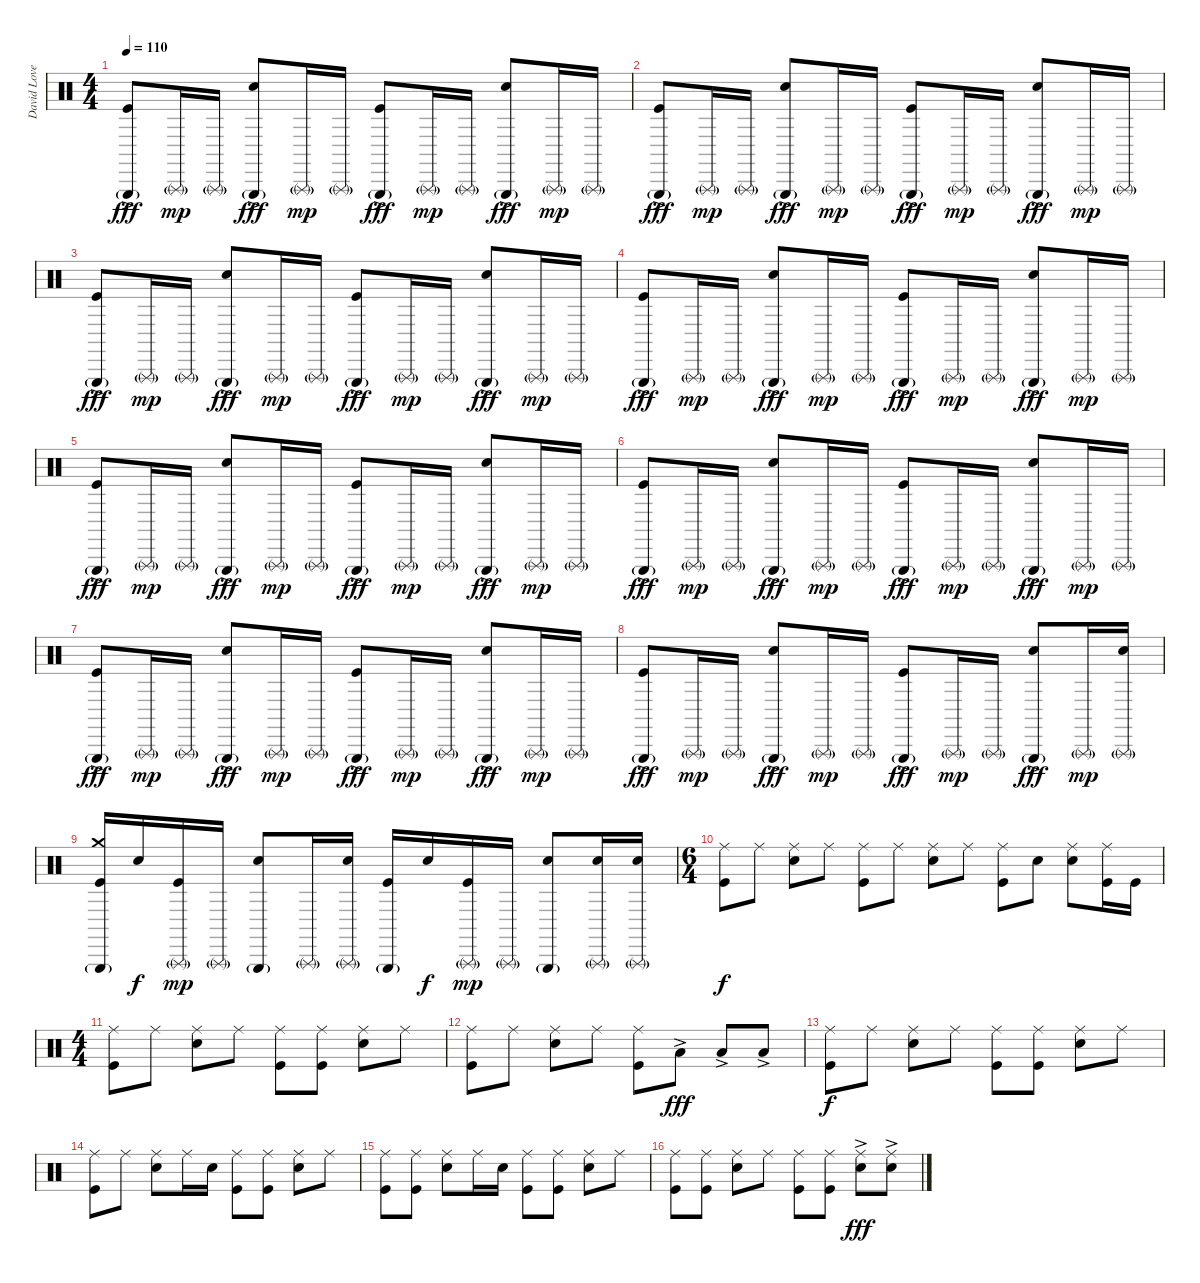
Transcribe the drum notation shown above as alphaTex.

\track ("David Lovering" "David Love") {instrument percussion}
\staff {score}
\articulation defaults
\ts (4 4)
\tempo 110
\clef neutral
\ks c
("Triangle (hit)"{g} "Kick (hit)"{ac}).8{dy fff} "Triangle (rnute)"{g}.16{dy mp} "Triangle (rnute)"{g}.16 ("Triangle (hit)"{g} "Snare (hit) 2"{ac}).8{dy fff} "Triangle (rnute)"{g}.16{dy mp} "Triangle (rnute)"{g}.16 ("Triangle (hit)"{g} "Kick (hit)"{ac}).8{dy fff} "Triangle (rnute)"{g}.16{dy mp} "Triangle (rnute)"{g}.16 ("Triangle (hit)"{g} "Snare (hit) 2"{ac}).8{dy fff} "Triangle (rnute)"{g}.16{dy mp} "Triangle (rnute)"{g}.16 |
("Triangle (hit)"{g} "Kick (hit)"{ac}).8{dy fff} "Triangle (rnute)"{g}.16{dy mp} "Triangle (rnute)"{g}.16 ("Triangle (hit)"{g} "Snare (hit) 2"{ac}).8{dy fff} "Triangle (rnute)"{g}.16{dy mp} "Triangle (rnute)"{g}.16 ("Triangle (hit)"{g} "Kick (hit)"{ac}).8{dy fff} "Triangle (rnute)"{g}.16{dy mp} "Triangle (rnute)"{g}.16 ("Triangle (hit)"{g} "Snare (hit) 2"{ac}).8{dy fff} "Triangle (rnute)"{g}.16{dy mp} "Triangle (rnute)"{g}.16 |
("Triangle (hit)"{g} "Kick (hit)"{ac}).8{dy fff} "Triangle (rnute)"{g}.16{dy mp} "Triangle (rnute)"{g}.16 ("Triangle (hit)"{g} "Snare (hit) 2"{ac}).8{dy fff} "Triangle (rnute)"{g}.16{dy mp} "Triangle (rnute)"{g}.16 ("Triangle (hit)"{g} "Kick (hit)"{ac}).8{dy fff} "Triangle (rnute)"{g}.16{dy mp} "Triangle (rnute)"{g}.16 ("Triangle (hit)"{g} "Snare (hit) 2"{ac}).8{dy fff} "Triangle (rnute)"{g}.16{dy mp} "Triangle (rnute)"{g}.16 |
("Triangle (hit)"{g} "Kick (hit)"{ac}).8{dy fff} "Triangle (rnute)"{g}.16{dy mp} "Triangle (rnute)"{g}.16 ("Triangle (hit)"{g} "Snare (hit) 2"{ac}).8{dy fff} "Triangle (rnute)"{g}.16{dy mp} "Triangle (rnute)"{g}.16 ("Triangle (hit)"{g} "Kick (hit)"{ac}).8{dy fff} "Triangle (rnute)"{g}.16{dy mp} "Triangle (rnute)"{g}.16 ("Triangle (hit)"{g} "Snare (hit) 2"{ac}).8{dy fff} "Triangle (rnute)"{g}.16{dy mp} "Triangle (rnute)"{g}.16 |
("Triangle (hit)"{g} "Kick (hit)"{ac}).8{dy fff} "Triangle (rnute)"{g}.16{dy mp} "Triangle (rnute)"{g}.16 ("Triangle (hit)"{g} "Snare (hit) 2"{ac}).8{dy fff} "Triangle (rnute)"{g}.16{dy mp} "Triangle (rnute)"{g}.16 ("Triangle (hit)"{g} "Kick (hit)"{ac}).8{dy fff} "Triangle (rnute)"{g}.16{dy mp} "Triangle (rnute)"{g}.16 ("Triangle (hit)"{g} "Snare (hit) 2"{ac}).8{dy fff} "Triangle (rnute)"{g}.16{dy mp} "Triangle (rnute)"{g}.16 |
("Triangle (hit)"{g} "Kick (hit)"{ac}).8{dy fff} "Triangle (rnute)"{g}.16{dy mp} "Triangle (rnute)"{g}.16 ("Triangle (hit)"{g} "Snare (hit) 2"{ac}).8{dy fff} "Triangle (rnute)"{g}.16{dy mp} "Triangle (rnute)"{g}.16 ("Triangle (hit)"{g} "Kick (hit)"{ac}).8{dy fff} "Triangle (rnute)"{g}.16{dy mp} "Triangle (rnute)"{g}.16 ("Triangle (hit)"{g} "Snare (hit) 2"{ac}).8{dy fff} "Triangle (rnute)"{g}.16{dy mp} "Triangle (rnute)"{g}.16 |
("Triangle (hit)"{g} "Kick (hit)"{ac}).8{dy fff} "Triangle (rnute)"{g}.16{dy mp} "Triangle (rnute)"{g}.16 ("Triangle (hit)"{g} "Snare (hit) 2"{ac}).8{dy fff} "Triangle (rnute)"{g}.16{dy mp} "Triangle (rnute)"{g}.16 ("Triangle (hit)"{g} "Kick (hit)"{ac}).8{dy fff} "Triangle (rnute)"{g}.16{dy mp} "Triangle (rnute)"{g}.16 ("Triangle (hit)"{g} "Snare (hit) 2"{ac}).8{dy fff} "Triangle (rnute)"{g}.16{dy mp} "Triangle (rnute)"{g}.16 |
("Triangle (hit)"{g} "Kick (hit)"{ac}).8{dy fff} "Triangle (rnute)"{g}.16{dy mp} "Triangle (rnute)"{g}.16 ("Triangle (hit)"{g} "Snare (hit) 2"{ac}).8{dy fff} "Triangle (rnute)"{g}.16{dy mp} "Triangle (rnute)"{g}.16 ("Triangle (hit)"{g} "Kick (hit)"{ac}).8{dy fff} "Triangle (rnute)"{g}.16{dy mp} "Triangle (rnute)"{g}.16 ("Triangle (hit)"{g} "Snare (hit) 2"{ac}).8{dy fff} "Triangle (rnute)"{g}.16{dy mp} ("Triangle (rnute)"{g} "Snare (hit) 2").16 |
("Triangle (hit)"{g} "Crash medium (hit)" "Kick (hit)").16 "Snare (hit) 2".16{dy f} ("Triangle (rnute)"{g} "Kick (hit)").16{dy mp} "Triangle (rnute)"{g}.16 ("Triangle (hit)"{g} "Snare (hit) 2").8 "Triangle (rnute)"{g}.16 ("Triangle (rnute)"{g} "Snare (hit) 2").16 ("Triangle (hit)"{g} "Kick (hit)").16 "Snare (hit) 2".16{dy f} ("Triangle (rnute)"{g} "Kick (hit)").16{dy mp} "Triangle (rnute)"{g}.16 ("Triangle (hit)"{g} "Snare (hit) 2").8 ("Triangle (rnute)"{g} "Snare (hit) 2").16 ("Triangle (rnute)"{g} "Snare (hit) 2").16 |
\ts (6 4)
\section ("" "")
("Ride (middle)" "Kick (hit)").8{dy f} "Ride (middle)".8 ("Ride (middle)" "Snare (hit) 2").8 "Ride (middle)".8 ("Ride (middle)" "Kick (hit)").8 "Ride (middle)".8 ("Ride (middle)" "Snare (hit) 2").8 "Ride (middle)".8 ("Ride (middle)" "Kick (hit)").8 "Snare (hit)".8 ("Ride (middle)" "Snare (hit) 2").8 ("Ride (middle)" "Kick (hit)").16 "Kick (hit)".16 |
\ts (4 4)
("Ride (middle)" "Kick (hit)").8 "Ride (middle)".8 ("Ride (middle)" "Snare (hit) 2").8 "Ride (middle)".8 ("Ride (middle)" "Kick (hit)").8 ("Ride (middle)" "Kick (hit)").8 ("Ride (middle)" "Snare (hit) 2").8 "Ride (middle)".8 |
("Ride (middle)" "Kick (hit)").8 "Ride (middle)".8 ("Ride (middle)" "Snare (hit) 2").8 "Ride (middle)".8 ("Ride (middle)" "Kick (hit)").8 "Low Floor Tom (hit)"{ac}.8{dy fff} "Low Floor Tom (hit)"{ac}.8 "Low Floor Tom (hit)"{ac}.8 |
("Ride (middle)" "Kick (hit)").8{dy f} "Ride (middle)".8 ("Ride (middle)" "Snare (hit) 2").8 "Ride (middle)".8 ("Ride (middle)" "Kick (hit)").8 ("Ride (middle)" "Kick (hit)").8 ("Ride (middle)" "Snare (hit) 2").8 "Ride (middle)".8 |
("Ride (middle)" "Kick (hit)").8 "Ride (middle)".8 ("Ride (middle)" "Snare (hit) 2").8 "Ride (middle)".16 "Snare (hit) 2".16 ("Ride (middle)" "Kick (hit)").8 ("Ride (middle)" "Kick (hit)").8 ("Ride (middle)" "Snare (hit) 2").8 "Ride (middle)".8 |
("Ride (middle)" "Kick (hit)").8 ("Ride (middle)" "Kick (hit)").8 ("Ride (middle)" "Snare (hit) 2").8 "Ride (middle)".16 "Snare (hit) 2".16 ("Ride (middle)" "Kick (hit)").8 ("Ride (middle)" "Kick (hit)").8 ("Ride (middle)" "Snare (hit) 2").8 "Ride (middle)".8 |
("Ride (middle)" "Kick (hit)").8 ("Ride (middle)" "Kick (hit)").8 ("Ride (middle)" "Snare (hit) 2").8 "Ride (middle)".8 ("Ride (middle)" "Kick (hit)").8 ("Ride (middle)" "Kick (hit)").8 ("Ride (middle)" "Snare (hit) 2"{ac}).8{dy fff} ("Ride (middle)" "Snare (hit) 2"{ac}).8
